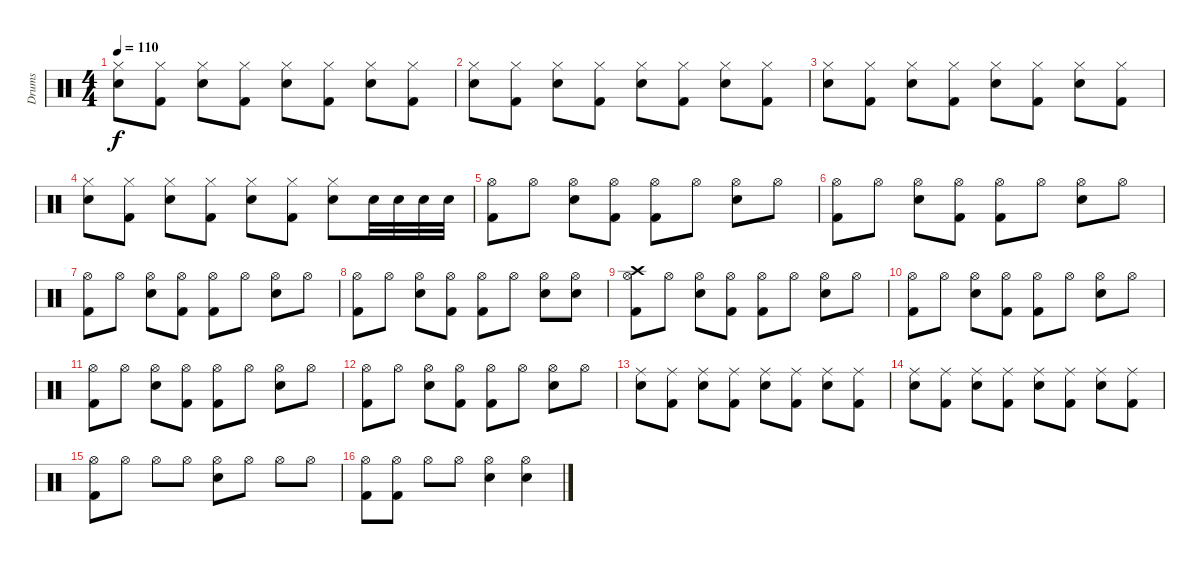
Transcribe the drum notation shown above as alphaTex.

\track ("Drums" "Drums") {instrument percussion}
\staff {score}
\articulation defaults
\ts (4 4)
\tempo 110
\clef neutral
\ks c
("Hi-Hat (closed)" "Electric Snare (hit)").8{dy f} ("Hi-Hat (closed)" "Kick (hit) 2").8 ("Hi-Hat (closed)" "Electric Snare (hit)").8 ("Hi-Hat (closed)" "Kick (hit) 2").8 ("Hi-Hat (closed)" "Electric Snare (hit)").8 ("Hi-Hat (closed)" "Kick (hit) 2").8 ("Hi-Hat (closed)" "Electric Snare (hit)").8 ("Hi-Hat (closed)" "Kick (hit) 2").8 |
("Hi-Hat (closed)" "Electric Snare (hit)").8 ("Hi-Hat (closed)" "Kick (hit) 2").8 ("Hi-Hat (closed)" "Electric Snare (hit)").8 ("Hi-Hat (closed)" "Kick (hit) 2").8 ("Hi-Hat (closed)" "Electric Snare (hit)").8 ("Hi-Hat (closed)" "Kick (hit) 2").8 ("Hi-Hat (closed)" "Electric Snare (hit)").8 ("Hi-Hat (closed)" "Kick (hit) 2").8 |
("Hi-Hat (closed)" "Electric Snare (hit)").8 ("Hi-Hat (closed)" "Kick (hit) 2").8 ("Hi-Hat (closed)" "Electric Snare (hit)").8 ("Hi-Hat (closed)" "Kick (hit) 2").8 ("Hi-Hat (closed)" "Electric Snare (hit)").8 ("Hi-Hat (closed)" "Kick (hit) 2").8 ("Hi-Hat (closed)" "Electric Snare (hit)").8 ("Hi-Hat (closed)" "Kick (hit) 2").8 |
("Hi-Hat (closed)" "Electric Snare (hit)").8 ("Hi-Hat (closed)" "Kick (hit) 2").8 ("Hi-Hat (closed)" "Electric Snare (hit)").8 ("Hi-Hat (closed)" "Kick (hit) 2").8 ("Hi-Hat (closed)" "Electric Snare (hit)").8 ("Hi-Hat (closed)" "Kick (hit) 2").8 ("Hi-Hat (closed)" "Electric Snare (hit)").8 "Electric Snare (hit)".32 "Electric Snare (hit)".32 "Electric Snare (hit)".32 "Electric Snare (hit)".32 |
("Hi-Hat (open)" "Kick (hit) 2").8 "Hi-Hat (open)".8 ("Hi-Hat (open)" "Electric Snare (hit)").8 ("Hi-Hat (open)" "Kick (hit) 2").8 ("Hi-Hat (open)" "Kick (hit) 2").8 "Hi-Hat (open)".8 ("Hi-Hat (open)" "Electric Snare (hit)").8 "Hi-Hat (open)".8 |
("Hi-Hat (open)" "Kick (hit) 2").8 "Hi-Hat (open)".8 ("Hi-Hat (open)" "Electric Snare (hit)").8 ("Hi-Hat (open)" "Kick (hit) 2").8 ("Hi-Hat (open)" "Kick (hit) 2").8 "Hi-Hat (open)".8 ("Hi-Hat (open)" "Electric Snare (hit)").8 "Hi-Hat (open)".8 |
("Hi-Hat (open)" "Kick (hit) 2").8 "Hi-Hat (open)".8 ("Hi-Hat (open)" "Electric Snare (hit)").8 ("Hi-Hat (open)" "Kick (hit) 2").8 ("Hi-Hat (open)" "Kick (hit) 2").8 "Hi-Hat (open)".8 ("Hi-Hat (open)" "Electric Snare (hit)").8 "Hi-Hat (open)".8 |
("Hi-Hat (open)" "Kick (hit) 2").8 "Hi-Hat (open)".8 ("Hi-Hat (open)" "Electric Snare (hit)").8 ("Hi-Hat (open)" "Kick (hit) 2").8 ("Hi-Hat (open)" "Kick (hit) 2").8 "Hi-Hat (open)".8 ("Hi-Hat (open)" "Electric Snare (hit)").8 ("Hi-Hat (open)" "Electric Snare (hit)").8 |
("Crash high (hit)" "Hi-Hat (open)" "Kick (hit) 2").8 "Hi-Hat (open)".8 ("Hi-Hat (open)" "Electric Snare (hit)").8 ("Hi-Hat (open)" "Kick (hit) 2").8 ("Hi-Hat (open)" "Kick (hit) 2").8 "Hi-Hat (open)".8 ("Hi-Hat (open)" "Electric Snare (hit)").8 "Hi-Hat (open)".8 |
("Hi-Hat (open)" "Kick (hit) 2").8 "Hi-Hat (open)".8 ("Hi-Hat (open)" "Electric Snare (hit)").8 ("Hi-Hat (open)" "Kick (hit) 2").8 ("Hi-Hat (open)" "Kick (hit) 2").8 "Hi-Hat (open)".8 ("Hi-Hat (open)" "Electric Snare (hit)").8 "Hi-Hat (open)".8 |
("Hi-Hat (open)" "Kick (hit) 2").8 "Hi-Hat (open)".8 ("Hi-Hat (open)" "Electric Snare (hit)").8 ("Hi-Hat (open)" "Kick (hit) 2").8 ("Hi-Hat (open)" "Kick (hit) 2").8 "Hi-Hat (open)".8 ("Hi-Hat (open)" "Electric Snare (hit)").8 "Hi-Hat (open)".8 |
("Hi-Hat (open)" "Kick (hit) 2").8 "Hi-Hat (open)".8 ("Hi-Hat (open)" "Electric Snare (hit)").8 ("Hi-Hat (open)" "Kick (hit) 2").8 ("Hi-Hat (open)" "Kick (hit) 2").8 "Hi-Hat (open)".8 ("Hi-Hat (open)" "Electric Snare (hit)").8 "Hi-Hat (open)".8 |
("Ride (middle)" "Electric Snare (hit)").8 ("Ride (middle)" "Kick (hit) 2").8 ("Ride (middle)" "Electric Snare (hit)").8 ("Ride (middle)" "Kick (hit) 2").8 ("Ride (middle)" "Electric Snare (hit)").8 ("Ride (middle)" "Kick (hit) 2").8 ("Ride (middle)" "Electric Snare (hit)").8 ("Ride (middle)" "Kick (hit) 2").8 |
("Ride (middle)" "Electric Snare (hit)").8 ("Ride (middle)" "Kick (hit) 2").8 ("Ride (middle)" "Electric Snare (hit)").8 ("Ride (middle)" "Kick (hit) 2").8 ("Ride (middle)" "Electric Snare (hit)").8 ("Ride (middle)" "Kick (hit) 2").8 ("Ride (middle)" "Electric Snare (hit)").8 ("Ride (middle)" "Kick (hit) 2").8 |
("Hi-Hat (open)" "Kick (hit) 2").8 "Hi-Hat (open)".8 "Hi-Hat (open)".8 "Hi-Hat (open)".8 ("Hi-Hat (open)" "Electric Snare (hit)").8 "Hi-Hat (open)".8 "Hi-Hat (open)".8 "Hi-Hat (open)".8 |
("Hi-Hat (open)" "Kick (hit) 2").8 ("Hi-Hat (open)" "Kick (hit) 2").8 "Hi-Hat (open)".8 "Hi-Hat (open)".8 ("Hi-Hat (open)" "Electric Snare (hit)").4 ("Hi-Hat (open)" "Electric Snare (hit)").4
